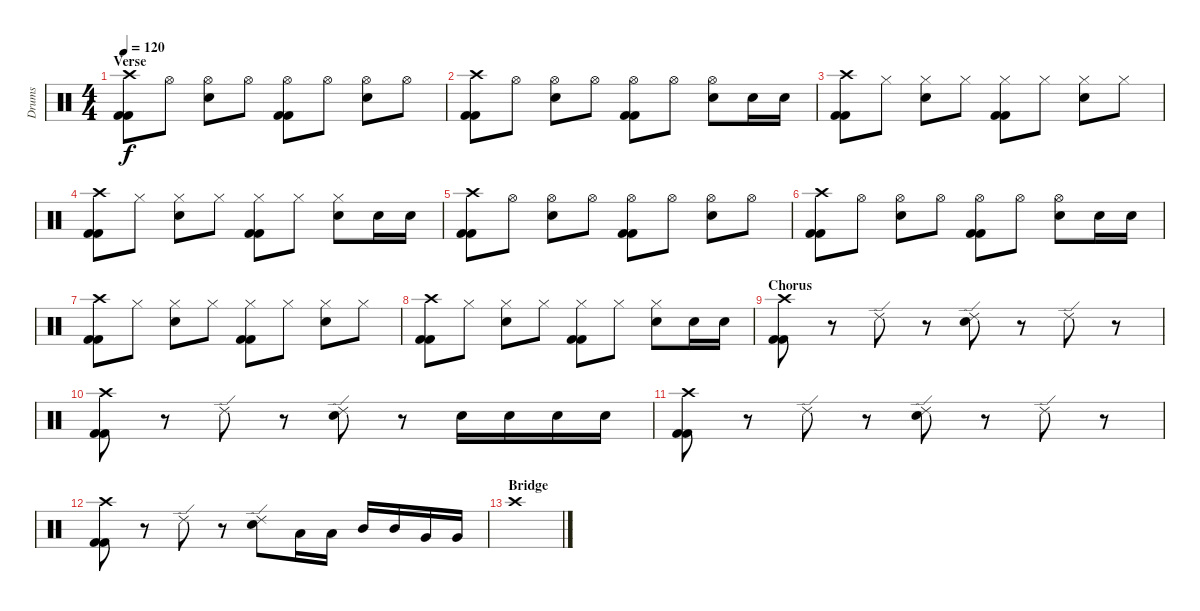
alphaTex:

\track ("Drums" "Drums") {instrument percussion}
\staff {score}
\articulation defaults
\ts (4 4)
\section ("" "Verse")
\tempo 120
\clef neutral
\ks c
("Crash high (hit)" "Kick (hit) 2" "Kick (hit) 2").8{dy f} "Hi-Hat (open)".8 ("Hi-Hat (open)" "Electric Snare (hit)").8 "Hi-Hat (open)".8 ("Hi-Hat (open)" "Kick (hit) 2" "Kick (hit) 2").8 "Hi-Hat (open)".8 ("Hi-Hat (open)" "Electric Snare (hit)").8 "Hi-Hat (open)".8 |
("Crash high (hit)" "Kick (hit) 2" "Kick (hit) 2").8 "Hi-Hat (open)".8 ("Hi-Hat (open)" "Electric Snare (hit)").8 "Hi-Hat (open)".8 ("Hi-Hat (open)" "Kick (hit) 2" "Kick (hit) 2").8 "Hi-Hat (open)".8 ("Hi-Hat (open)" "Electric Snare (hit)").8 "Electric Snare (hit)".16 "Electric Snare (hit)".16 |
("Crash high (hit)" "Kick (hit) 2" "Kick (hit) 2").8 "Hi-Hat (closed)".8 ("Hi-Hat (closed)" "Electric Snare (hit)").8 "Hi-Hat (closed)".8 ("Hi-Hat (closed)" "Kick (hit) 2" "Kick (hit) 2").8 "Hi-Hat (closed)".8 ("Hi-Hat (closed)" "Electric Snare (hit)").8 "Hi-Hat (closed)".8 |
("Crash high (hit)" "Kick (hit) 2" "Kick (hit) 2").8 "Hi-Hat (closed)".8 ("Hi-Hat (closed)" "Electric Snare (hit)").8 "Hi-Hat (closed)".8 ("Hi-Hat (closed)" "Kick (hit) 2" "Kick (hit) 2").8 "Hi-Hat (closed)".8 ("Hi-Hat (closed)" "Electric Snare (hit)").8 "Electric Snare (hit)".16 "Electric Snare (hit)".16 |
("Crash high (hit)" "Kick (hit) 2" "Kick (hit) 2").8 "Hi-Hat (open)".8 ("Hi-Hat (open)" "Electric Snare (hit)").8 "Hi-Hat (open)".8 ("Hi-Hat (open)" "Kick (hit) 2" "Kick (hit) 2").8 "Hi-Hat (open)".8 ("Hi-Hat (open)" "Electric Snare (hit)").8 "Hi-Hat (open)".8 |
("Crash high (hit)" "Kick (hit) 2" "Kick (hit) 2").8 "Hi-Hat (open)".8 ("Hi-Hat (open)" "Electric Snare (hit)").8 "Hi-Hat (open)".8 ("Hi-Hat (open)" "Kick (hit) 2" "Kick (hit) 2").8 "Hi-Hat (open)".8 ("Hi-Hat (open)" "Electric Snare (hit)").8 "Electric Snare (hit)".16 "Electric Snare (hit)".16 |
("Crash high (hit)" "Kick (hit) 2" "Kick (hit) 2").8 "Hi-Hat (closed)".8 ("Hi-Hat (closed)" "Electric Snare (hit)").8 "Hi-Hat (closed)".8 ("Hi-Hat (closed)" "Kick (hit) 2" "Kick (hit) 2").8 "Hi-Hat (closed)".8 ("Hi-Hat (closed)" "Electric Snare (hit)").8 "Hi-Hat (closed)".8 |
("Crash high (hit)" "Kick (hit) 2" "Kick (hit) 2").8 "Hi-Hat (closed)".8 ("Hi-Hat (closed)" "Electric Snare (hit)").8 "Hi-Hat (closed)".8 ("Hi-Hat (closed)" "Kick (hit) 2" "Kick (hit) 2").8 "Hi-Hat (closed)".8 ("Hi-Hat (closed)" "Electric Snare (hit)").8 "Electric Snare (hit)".16 "Electric Snare (hit)".16 |
\section ("" "Chorus")
("Crash high (hit)" "Kick (hit) 2" "Kick (hit) 2").8 r.8 "Ride (edge) 2".8 r.8 ("Ride (edge) 2" "Electric Snare (hit)").8 r.8 "Ride (edge) 2".8 r.8 |
("Crash high (hit)" "Kick (hit) 2" "Kick (hit) 2").8 r.8 "Ride (edge) 2".8 r.8 ("Ride (edge) 2" "Electric Snare (hit)").8 r.8 "Electric Snare (hit)".16 "Electric Snare (hit)".16 "Electric Snare (hit)".16 "Electric Snare (hit)".16 |
("Crash high (hit)" "Kick (hit) 2" "Kick (hit) 2").8 r.8 "Ride (edge) 2".8 r.8 ("Ride (edge) 2" "Electric Snare (hit)").8 r.8 "Ride (edge) 2".8 r.8 |
("Crash high (hit)" "Kick (hit) 2" "Kick (hit) 2").8 r.8 "Ride (edge) 2".8 r.8 ("Ride (edge) 2" "Electric Snare (hit)").8 "Low Tom (hit)".16 "Low Tom (hit)".16 "Mid Tom (hit)".16 "Mid Tom (hit)".16 "Very Low Tom (hit)".16 "Very Low Tom (hit)".16 |
\section ("" "Bridge")
"Crash high (hit)".1
